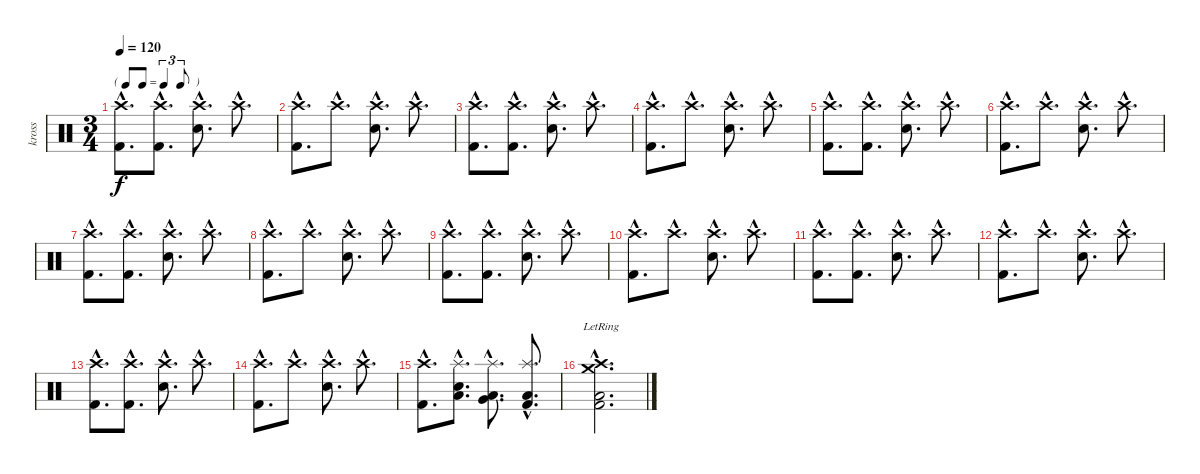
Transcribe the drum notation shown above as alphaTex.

\track ("kross" "kross") {instrument percussion}
\staff {score}
\articulation defaults
\ts (3 4)
\tf triplet8th
\tempo 120
\clef neutral
\ks c
("Crash high (hit)"{hac} "Kick (hit) 2"{hac}).8{d dy f} ("Crash high (hit)"{hac} "Kick (hit) 2"{hac}).8{d} ("Electric Snare (hit)"{hac} "Crash high (hit)"{hac}).8{d} "Crash high (hit)"{hac}.8{d} |
("Crash high (hit)"{hac} "Kick (hit) 2"{hac}).8{d} "Crash high (hit)"{hac}.8{d} ("Electric Snare (hit)"{hac} "Crash high (hit)"{hac}).8{d} "Crash high (hit)"{hac}.8{d} |
("Crash high (hit)"{hac} "Kick (hit) 2"{hac}).8{d} ("Crash high (hit)"{hac} "Kick (hit) 2"{hac}).8{d} ("Electric Snare (hit)"{hac} "Crash high (hit)"{hac}).8{d} "Crash high (hit)"{hac}.8{d} |
("Crash high (hit)"{hac} "Kick (hit) 2"{hac}).8{d} "Crash high (hit)"{hac}.8{d} ("Electric Snare (hit)"{hac} "Crash high (hit)"{hac}).8{d} "Crash high (hit)"{hac}.8{d} |
("Crash high (hit)"{hac} "Kick (hit) 2"{hac}).8{d} ("Crash high (hit)"{hac} "Kick (hit) 2"{hac}).8{d} ("Electric Snare (hit)"{hac} "Crash high (hit)"{hac}).8{d} "Crash high (hit)"{hac}.8{d} |
("Crash high (hit)"{hac} "Kick (hit) 2"{hac}).8{d} "Crash high (hit)"{hac}.8{d} ("Electric Snare (hit)"{hac} "Crash high (hit)"{hac}).8{d} "Crash high (hit)"{hac}.8{d} |
("Crash high (hit)"{hac} "Kick (hit) 2"{hac}).8{d} ("Crash high (hit)"{hac} "Kick (hit) 2"{hac}).8{d} ("Electric Snare (hit)"{hac} "Crash high (hit)"{hac}).8{d} "Crash high (hit)"{hac}.8{d} |
("Crash high (hit)"{hac} "Kick (hit) 2"{hac}).8{d} "Crash high (hit)"{hac}.8{d} ("Electric Snare (hit)"{hac} "Crash high (hit)"{hac}).8{d} "Crash high (hit)"{hac}.8{d} |
("Crash high (hit)"{hac} "Kick (hit) 2"{hac}).8{d} ("Crash high (hit)"{hac} "Kick (hit) 2"{hac}).8{d} ("Electric Snare (hit)"{hac} "Crash high (hit)"{hac}).8{d} "Crash high (hit)"{hac}.8{d} |
("Crash high (hit)"{hac} "Kick (hit) 2"{hac}).8{d} "Crash high (hit)"{hac}.8{d} ("Electric Snare (hit)"{hac} "Crash high (hit)"{hac}).8{d} "Crash high (hit)"{hac}.8{d} |
("Crash high (hit)"{hac} "Kick (hit) 2"{hac}).8{d} ("Crash high (hit)"{hac} "Kick (hit) 2"{hac}).8{d} ("Electric Snare (hit)"{hac} "Crash high (hit)"{hac}).8{d} "Crash high (hit)"{hac}.8{d} |
("Crash high (hit)"{hac} "Kick (hit) 2"{hac}).8{d} "Crash high (hit)"{hac}.8{d} ("Electric Snare (hit)"{hac} "Crash high (hit)"{hac}).8{d} "Crash high (hit)"{hac}.8{d} |
("Crash high (hit)"{hac} "Kick (hit) 2"{hac}).8{d} ("Crash high (hit)"{hac} "Kick (hit) 2"{hac}).8{d} ("Electric Snare (hit)"{hac} "Crash high (hit)"{hac}).8{d} "Crash high (hit)"{hac}.8{d} |
("Crash high (hit)"{hac} "Kick (hit) 2"{hac}).8{d} "Crash high (hit)"{hac}.8{d} ("Electric Snare (hit)"{hac} "Crash high (hit)"{hac}).8{d} "Crash high (hit)"{hac}.8{d} |
("Crash high (hit)"{hac} "Kick (hit) 2"{hac}).8{d} ("Electric Snare (hit)"{hac} "Low Tom (hit)"{hac} "Splash (hit)"{hac}).8{d} ("Very Low Tom (hit)"{hac} "Splash (hit)"{hac} "Low Floor Tom (hit)"{hac}).8{d} ("Splash (hit)"{hac} "Low Floor Tom (hit)"{hac} "Kick (hit) 2"{hac}).8{d} |
("Crash medium (hit)"{hac lr} "Crash high (hit)"{hac lr} "Low Floor Tom (hit)"{hac lr} "Kick (hit) 2"{hac lr}).2{d}
